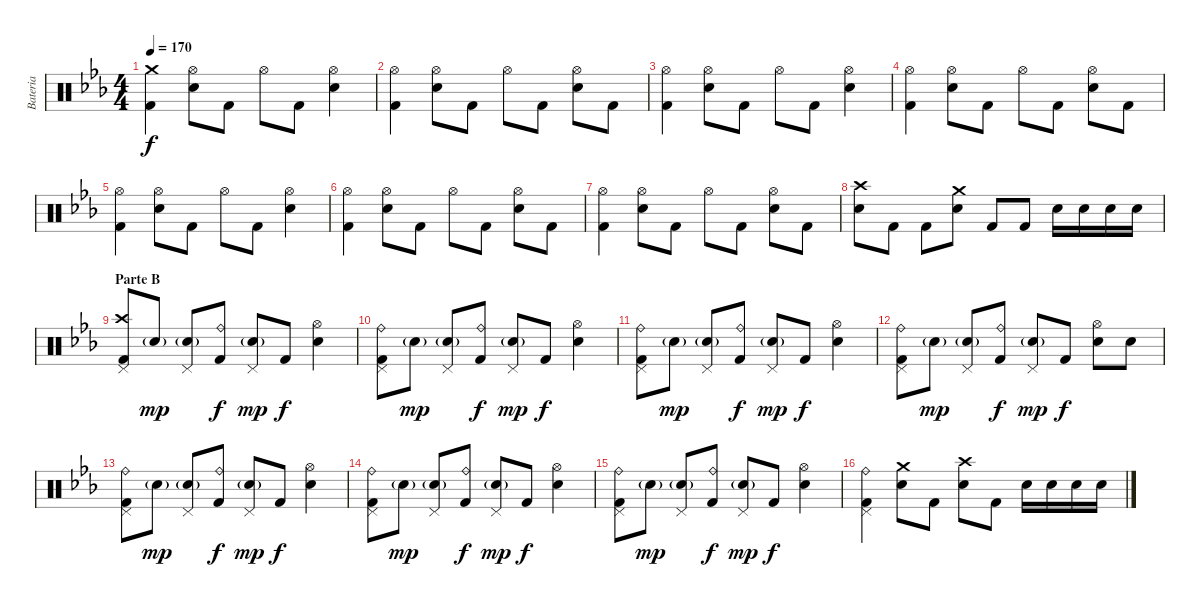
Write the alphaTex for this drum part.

\track ("Bateria" "Bateria") {instrument percussion}
\staff {score}
\articulation defaults
\ts (4 4)
\tempo 170
\clef neutral
\ks cminor
("Crash medium (hit)" "Kick (hit) 2").4{dy f} ("Hi-Hat (open)" "Electric Snare (hit)").8 "Kick (hit) 2".8 "Hi-Hat (open)".8 "Kick (hit) 2".8 ("Hi-Hat (open)" "Electric Snare (hit)").4 |
("Hi-Hat (open)" "Kick (hit) 2").4 ("Hi-Hat (open)" "Electric Snare (hit)").8 "Kick (hit) 2".8 "Hi-Hat (open)".8 "Kick (hit) 2".8 ("Hi-Hat (open)" "Electric Snare (hit)").8 "Kick (hit) 2".8 |
("Hi-Hat (open)" "Kick (hit) 2").4 ("Hi-Hat (open)" "Electric Snare (hit)").8 "Kick (hit) 2".8 "Hi-Hat (open)".8 "Kick (hit) 2".8 ("Hi-Hat (open)" "Electric Snare (hit)").4 |
("Hi-Hat (open)" "Kick (hit) 2").4 ("Hi-Hat (open)" "Electric Snare (hit)").8 "Kick (hit) 2".8 "Hi-Hat (open)".8 "Kick (hit) 2".8 ("Hi-Hat (open)" "Electric Snare (hit)").8 "Kick (hit) 2".8 |
("Hi-Hat (open)" "Kick (hit) 2").4 ("Hi-Hat (open)" "Electric Snare (hit)").8 "Kick (hit) 2".8 "Hi-Hat (open)".8 "Kick (hit) 2".8 ("Hi-Hat (open)" "Electric Snare (hit)").4 |
("Hi-Hat (open)" "Kick (hit) 2").4 ("Hi-Hat (open)" "Electric Snare (hit)").8 "Kick (hit) 2".8 "Hi-Hat (open)".8 "Kick (hit) 2".8 ("Hi-Hat (open)" "Electric Snare (hit)").8 "Kick (hit) 2".8 |
("Hi-Hat (open)" "Kick (hit) 2").4 ("Hi-Hat (open)" "Electric Snare (hit)").8 "Kick (hit) 2".8 "Hi-Hat (open)".8 "Kick (hit) 2".8 ("Hi-Hat (open)" "Electric Snare (hit)").8 "Kick (hit) 2".8 |
("Crash high (hit)" "Electric Snare (hit)").8 "Kick (hit) 2".8 "Kick (hit) 2".8 ("Crash medium (hit)" "Electric Snare (hit)").8 "Kick (hit) 2".8 "Kick (hit) 2".8 "Electric Snare (hit)".16 "Electric Snare (hit)".16 "Electric Snare (hit)".16 "Electric Snare (hit)".16 |
\section ("" "Parte B")
("Crash high (hit)" "Pedal Hi-Hat (hit)" "Kick (hit) 2").8 "Electric Snare (hit)"{g}.8{dy mp} ("Electric Snare (hit)"{g} "Pedal Hi-Hat (hit)").8 ("Ride (bell)" "Kick (hit) 2").8{dy f} ("Electric Snare (hit)"{g} "Pedal Hi-Hat (hit)").8{dy mp} "Kick (hit) 2".8{dy f} ("Hi-Hat (open)" "Electric Snare (hit)").4 |
("Ride (bell)" "Pedal Hi-Hat (hit)" "Kick (hit) 2").8 "Electric Snare (hit)"{g}.8{dy mp} ("Electric Snare (hit)"{g} "Pedal Hi-Hat (hit)").8 ("Ride (bell)" "Kick (hit) 2").8{dy f} ("Electric Snare (hit)"{g} "Pedal Hi-Hat (hit)").8{dy mp} "Kick (hit) 2".8{dy f} ("Hi-Hat (open)" "Electric Snare (hit)").4 |
("Ride (bell)" "Pedal Hi-Hat (hit)" "Kick (hit) 2").8 "Electric Snare (hit)"{g}.8{dy mp} ("Electric Snare (hit)"{g} "Pedal Hi-Hat (hit)").8 ("Ride (bell)" "Kick (hit) 2").8{dy f} ("Electric Snare (hit)"{g} "Pedal Hi-Hat (hit)").8{dy mp} "Kick (hit) 2".8{dy f} ("Hi-Hat (open)" "Electric Snare (hit)").4 |
("Ride (bell)" "Pedal Hi-Hat (hit)" "Kick (hit) 2").8 "Electric Snare (hit)"{g}.8{dy mp} ("Electric Snare (hit)"{g} "Pedal Hi-Hat (hit)").8 ("Ride (bell)" "Kick (hit) 2").8{dy f} ("Electric Snare (hit)"{g} "Pedal Hi-Hat (hit)").8{dy mp} "Kick (hit) 2".8{dy f} ("Hi-Hat (open)" "Electric Snare (hit)").8 "Electric Snare (hit)".8 |
("Ride (bell)" "Pedal Hi-Hat (hit)" "Kick (hit) 2").8 "Electric Snare (hit)"{g}.8{dy mp} ("Electric Snare (hit)"{g} "Pedal Hi-Hat (hit)").8 ("Ride (bell)" "Kick (hit) 2").8{dy f} ("Electric Snare (hit)"{g} "Pedal Hi-Hat (hit)").8{dy mp} "Kick (hit) 2".8{dy f} ("Hi-Hat (open)" "Electric Snare (hit)").4 |
("Ride (bell)" "Pedal Hi-Hat (hit)" "Kick (hit) 2").8 "Electric Snare (hit)"{g}.8{dy mp} ("Electric Snare (hit)"{g} "Pedal Hi-Hat (hit)").8 ("Ride (bell)" "Kick (hit) 2").8{dy f} ("Electric Snare (hit)"{g} "Pedal Hi-Hat (hit)").8{dy mp} "Kick (hit) 2".8{dy f} ("Hi-Hat (open)" "Electric Snare (hit)").4 |
("Ride (bell)" "Pedal Hi-Hat (hit)" "Kick (hit) 2").8 "Electric Snare (hit)"{g}.8{dy mp} ("Electric Snare (hit)"{g} "Pedal Hi-Hat (hit)").8 ("Ride (bell)" "Kick (hit) 2").8{dy f} ("Electric Snare (hit)"{g} "Pedal Hi-Hat (hit)").8{dy mp} "Kick (hit) 2".8{dy f} ("Hi-Hat (open)" "Electric Snare (hit)").4 |
("Ride (bell)" "Pedal Hi-Hat (hit)" "Kick (hit) 2").4 ("Crash medium (hit)" "Electric Snare (hit)").8 "Kick (hit) 2".8 ("Crash high (hit)" "Electric Snare (hit)").8 "Kick (hit) 2".8 "Electric Snare (hit)".16 "Electric Snare (hit)".16 "Electric Snare (hit)".16 "Electric Snare (hit)".16
